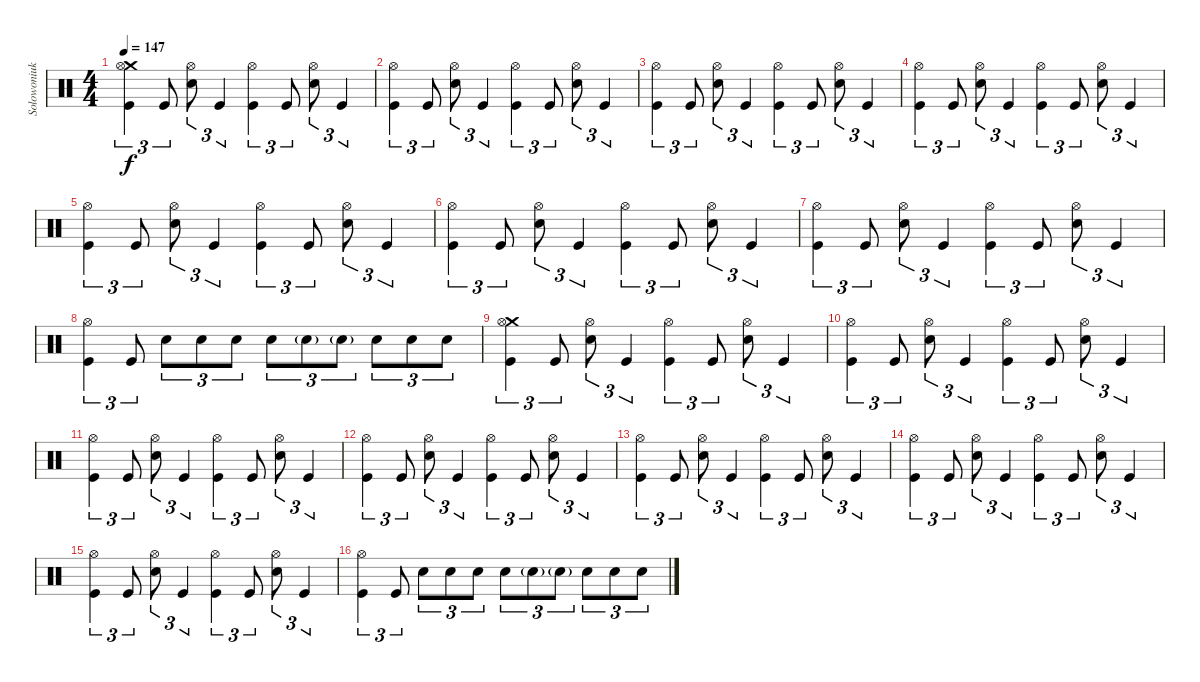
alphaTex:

\track ("Solowoniuk " "Solowoniuk") {instrument percussion}
\staff {score}
\articulation defaults
\ts (4 4)
\tempo 147
\clef neutral
\ks c
("Crash medium (hit)" "Hi-Hat (open)" "Kick (hit)").4{tu (3 2) dy f} "Kick (hit)".8{tu (3 2)} ("Hi-Hat (open)" "Snare (hit) 2").8{tu (3 2)} "Kick (hit)".4{tu (3 2)} ("Hi-Hat (open)" "Kick (hit)").4{tu (3 2)} "Kick (hit)".8{tu (3 2)} ("Hi-Hat (open)" "Snare (hit) 2").8{tu (3 2)} "Kick (hit)".4{tu (3 2)} |
("Hi-Hat (open)" "Kick (hit)").4{tu (3 2)} "Kick (hit)".8{tu (3 2)} ("Hi-Hat (open)" "Snare (hit) 2").8{tu (3 2)} "Kick (hit)".4{tu (3 2)} ("Hi-Hat (open)" "Kick (hit)").4{tu (3 2)} "Kick (hit)".8{tu (3 2)} ("Hi-Hat (open)" "Snare (hit) 2").8{tu (3 2)} "Kick (hit)".4{tu (3 2)} |
("Hi-Hat (open)" "Kick (hit)").4{tu (3 2)} "Kick (hit)".8{tu (3 2)} ("Hi-Hat (open)" "Snare (hit) 2").8{tu (3 2)} "Kick (hit)".4{tu (3 2)} ("Hi-Hat (open)" "Kick (hit)").4{tu (3 2)} "Kick (hit)".8{tu (3 2)} ("Hi-Hat (open)" "Snare (hit) 2").8{tu (3 2)} "Kick (hit)".4{tu (3 2)} |
("Hi-Hat (open)" "Kick (hit)").4{tu (3 2)} "Kick (hit)".8{tu (3 2)} ("Hi-Hat (open)" "Snare (hit) 2").8{tu (3 2)} "Kick (hit)".4{tu (3 2)} ("Hi-Hat (open)" "Kick (hit)").4{tu (3 2)} "Kick (hit)".8{tu (3 2)} ("Hi-Hat (open)" "Snare (hit) 2").8{tu (3 2)} "Kick (hit)".4{tu (3 2)} |
("Hi-Hat (open)" "Kick (hit)").4{tu (3 2)} "Kick (hit)".8{tu (3 2)} ("Hi-Hat (open)" "Snare (hit) 2").8{tu (3 2)} "Kick (hit)".4{tu (3 2)} ("Hi-Hat (open)" "Kick (hit)").4{tu (3 2)} "Kick (hit)".8{tu (3 2)} ("Hi-Hat (open)" "Snare (hit) 2").8{tu (3 2)} "Kick (hit)".4{tu (3 2)} |
("Hi-Hat (open)" "Kick (hit)").4{tu (3 2)} "Kick (hit)".8{tu (3 2)} ("Hi-Hat (open)" "Snare (hit) 2").8{tu (3 2)} "Kick (hit)".4{tu (3 2)} ("Hi-Hat (open)" "Kick (hit)").4{tu (3 2)} "Kick (hit)".8{tu (3 2)} ("Hi-Hat (open)" "Snare (hit) 2").8{tu (3 2)} "Kick (hit)".4{tu (3 2)} |
("Hi-Hat (open)" "Kick (hit)").4{tu (3 2)} "Kick (hit)".8{tu (3 2)} ("Hi-Hat (open)" "Snare (hit) 2").8{tu (3 2)} "Kick (hit)".4{tu (3 2)} ("Hi-Hat (open)" "Kick (hit)").4{tu (3 2)} "Kick (hit)".8{tu (3 2)} ("Hi-Hat (open)" "Snare (hit) 2").8{tu (3 2)} "Kick (hit)".4{tu (3 2)} |
("Hi-Hat (open)" "Kick (hit)").4{tu (3 2)} "Kick (hit)".8{tu (3 2)} "Snare (hit) 2".8{tu (3 2)} "Snare (hit) 2".8{tu (3 2)} "Snare (hit) 2".8{tu (3 2)} "Snare (hit) 2".8{tu (3 2)} "Snare (hit) 2"{g}.8{tu (3 2)} "Snare (hit) 2"{g}.8{tu (3 2)} "Snare (hit) 2".8{tu (3 2)} "Snare (hit) 2".8{tu (3 2)} "Snare (hit) 2".8{tu (3 2)} |
("Crash medium (hit)" "Hi-Hat (open)" "Kick (hit)").4{tu (3 2)} "Kick (hit)".8{tu (3 2)} ("Hi-Hat (open)" "Snare (hit) 2").8{tu (3 2)} "Kick (hit)".4{tu (3 2)} ("Hi-Hat (open)" "Kick (hit)").4{tu (3 2)} "Kick (hit)".8{tu (3 2)} ("Hi-Hat (open)" "Snare (hit) 2").8{tu (3 2)} "Kick (hit)".4{tu (3 2)} |
("Hi-Hat (open)" "Kick (hit)").4{tu (3 2)} "Kick (hit)".8{tu (3 2)} ("Hi-Hat (open)" "Snare (hit) 2").8{tu (3 2)} "Kick (hit)".4{tu (3 2)} ("Hi-Hat (open)" "Kick (hit)").4{tu (3 2)} "Kick (hit)".8{tu (3 2)} ("Hi-Hat (open)" "Snare (hit) 2").8{tu (3 2)} "Kick (hit)".4{tu (3 2)} |
("Hi-Hat (open)" "Kick (hit)").4{tu (3 2)} "Kick (hit)".8{tu (3 2)} ("Hi-Hat (open)" "Snare (hit) 2").8{tu (3 2)} "Kick (hit)".4{tu (3 2)} ("Hi-Hat (open)" "Kick (hit)").4{tu (3 2)} "Kick (hit)".8{tu (3 2)} ("Hi-Hat (open)" "Snare (hit) 2").8{tu (3 2)} "Kick (hit)".4{tu (3 2)} |
("Hi-Hat (open)" "Kick (hit)").4{tu (3 2)} "Kick (hit)".8{tu (3 2)} ("Hi-Hat (open)" "Snare (hit) 2").8{tu (3 2)} "Kick (hit)".4{tu (3 2)} ("Hi-Hat (open)" "Kick (hit)").4{tu (3 2)} "Kick (hit)".8{tu (3 2)} ("Hi-Hat (open)" "Snare (hit) 2").8{tu (3 2)} "Kick (hit)".4{tu (3 2)} |
("Hi-Hat (open)" "Kick (hit)").4{tu (3 2)} "Kick (hit)".8{tu (3 2)} ("Hi-Hat (open)" "Snare (hit) 2").8{tu (3 2)} "Kick (hit)".4{tu (3 2)} ("Hi-Hat (open)" "Kick (hit)").4{tu (3 2)} "Kick (hit)".8{tu (3 2)} ("Hi-Hat (open)" "Snare (hit) 2").8{tu (3 2)} "Kick (hit)".4{tu (3 2)} |
("Hi-Hat (open)" "Kick (hit)").4{tu (3 2)} "Kick (hit)".8{tu (3 2)} ("Hi-Hat (open)" "Snare (hit) 2").8{tu (3 2)} "Kick (hit)".4{tu (3 2)} ("Hi-Hat (open)" "Kick (hit)").4{tu (3 2)} "Kick (hit)".8{tu (3 2)} ("Hi-Hat (open)" "Snare (hit) 2").8{tu (3 2)} "Kick (hit)".4{tu (3 2)} |
("Hi-Hat (open)" "Kick (hit)").4{tu (3 2)} "Kick (hit)".8{tu (3 2)} ("Hi-Hat (open)" "Snare (hit) 2").8{tu (3 2)} "Kick (hit)".4{tu (3 2)} ("Hi-Hat (open)" "Kick (hit)").4{tu (3 2)} "Kick (hit)".8{tu (3 2)} ("Hi-Hat (open)" "Snare (hit) 2").8{tu (3 2)} "Kick (hit)".4{tu (3 2)} |
("Hi-Hat (open)" "Kick (hit)").4{tu (3 2)} "Kick (hit)".8{tu (3 2)} "Snare (hit) 2".8{tu (3 2)} "Snare (hit) 2".8{tu (3 2)} "Snare (hit) 2".8{tu (3 2)} "Snare (hit) 2".8{tu (3 2)} "Snare (hit) 2"{g}.8{tu (3 2)} "Snare (hit) 2"{g}.8{tu (3 2)} "Snare (hit) 2".8{tu (3 2)} "Snare (hit) 2".8{tu (3 2)} "Snare (hit) 2".8{tu (3 2)}
